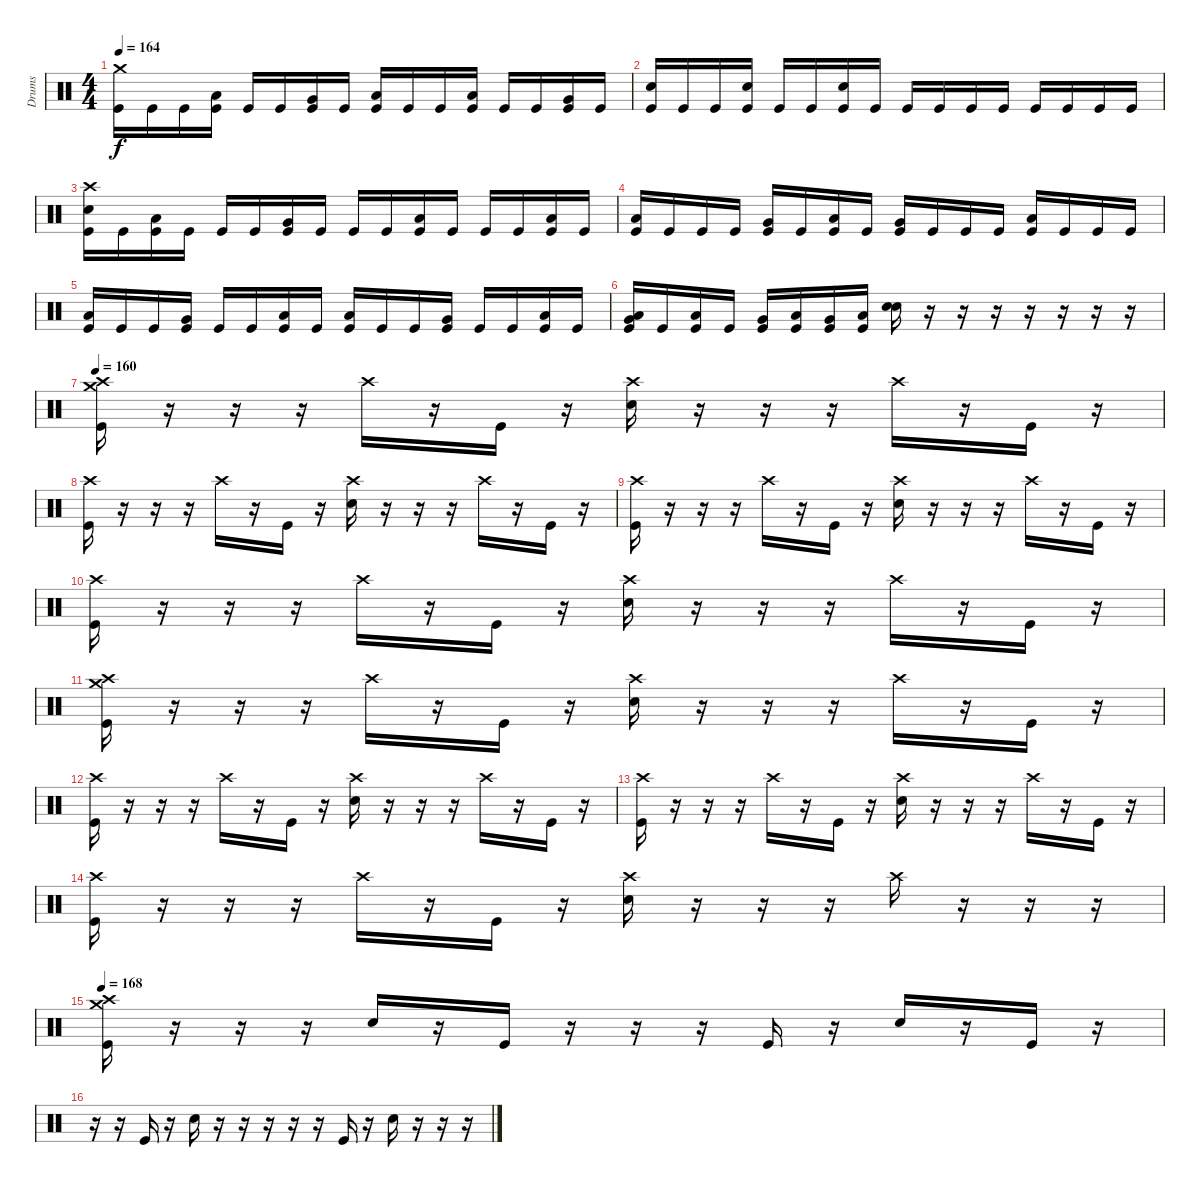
\track ("Drums" "Drums") {instrument percussion}
\staff {score}
\articulation defaults
\ts (4 4)
\tempo 164
\clef neutral
\ks c
("Kick (hit)" "Crash medium (hit)").16{dy f} "Kick (hit)".16 "Kick (hit)".16 ("Kick (hit)" "Low Tom (hit)").16 "Kick (hit)".16 "Kick (hit)".16 ("Kick (hit)" "Very Low Tom (hit)").16 "Kick (hit)".16 ("Kick (hit)" "Low Tom (hit)").16 "Kick (hit)".16 "Kick (hit)".16 ("Kick (hit)" "Low Tom (hit)").16 "Kick (hit)".16 "Kick (hit)".16 ("Kick (hit)" "Very Low Tom (hit)").16 "Kick (hit)".16 |
("Kick (hit)" "Electric Snare (hit)").16 "Kick (hit)".16 "Kick (hit)".16 ("Kick (hit)" "Electric Snare (hit)").16 "Kick (hit)".16 "Kick (hit)".16 ("Kick (hit)" "Electric Snare (hit)").16 "Kick (hit)".16 "Kick (hit)".16 "Kick (hit)".16 "Kick (hit)".16 "Kick (hit)".16 "Kick (hit)".16 "Kick (hit)".16 "Kick (hit)".16 "Kick (hit)".16 |
("Kick (hit)" "Crash high (hit)" "Electric Snare (hit)").16 "Kick (hit)".16 ("Kick (hit)" "Low Tom (hit)").16 "Kick (hit)".16 "Kick (hit)".16 "Kick (hit)".16 ("Kick (hit)" "Very Low Tom (hit)").16 "Kick (hit)".16 "Kick (hit)".16 "Kick (hit)".16 ("Kick (hit)" "Low Floor Tom (hit)").16 "Kick (hit)".16 "Kick (hit)".16 "Kick (hit)".16 ("Kick (hit)" "Low Floor Tom (hit)").16 "Kick (hit)".16 |
("Kick (hit)" "Low Tom (hit)").16 "Kick (hit)".16 "Kick (hit)".16 "Kick (hit)".16 ("Kick (hit)" "Very Low Tom (hit)").16 "Kick (hit)".16 ("Kick (hit)" "Low Floor Tom (hit)").16 "Kick (hit)".16 ("Kick (hit)" "Very Low Tom (hit)").16 "Kick (hit)".16 "Kick (hit)".16 "Kick (hit)".16 ("Kick (hit)" "Low Tom (hit)").16 "Kick (hit)".16 "Kick (hit)".16 "Kick (hit)".16 |
("Kick (hit)" "Low Tom (hit)").16 "Kick (hit)".16 "Kick (hit)".16 ("Kick (hit)" "Very Low Tom (hit)").16 "Kick (hit)".16 "Kick (hit)".16 ("Kick (hit)" "Low Floor Tom (hit)").16 "Kick (hit)".16 ("Kick (hit)" "Low Tom (hit)").16 "Kick (hit)".16 "Kick (hit)".16 ("Kick (hit)" "Very Low Tom (hit)").16 "Kick (hit)".16 "Kick (hit)".16 ("Kick (hit)" "Low Floor Tom (hit)").16 "Kick (hit)".16 |
("Kick (hit)" "Low Tom (hit)" "Very Low Tom (hit)").16 "Kick (hit)".16 ("Kick (hit)" "Low Floor Tom (hit)").16 "Kick (hit)".16 ("Kick (hit)" "Very Low Tom (hit)").16 ("Kick (hit)" "Low Floor Tom (hit)").16 ("Kick (hit)" "Very Low Tom (hit)").16 ("Kick (hit)" "Low Tom (hit)").16 ("Electric Snare (hit)" "Electric Snare (hit)").16 r.16 r.16 r.16 r.16 r.16 r.16 r.16 |
\tempo 160
("Crash medium (hit)" "Kick (hit)" "Crash high (hit)").16 r.16 r.16 r.16 "Crash high (hit)".16 r.16 "Kick (hit)".16 r.16 ("Electric Snare (hit)" "Crash high (hit)").16 r.16 r.16 r.16 "Crash high (hit)".16 r.16 "Kick (hit)".16 r.16 |
("Kick (hit)" "Crash high (hit)").16 r.16 r.16 r.16 "Crash high (hit)".16 r.16 "Kick (hit)".16 r.16 ("Electric Snare (hit)" "Crash high (hit)").16 r.16 r.16 r.16 "Crash high (hit)".16 r.16 "Kick (hit)".16 r.16 |
("Kick (hit)" "Crash high (hit)").16 r.16 r.16 r.16 "Crash high (hit)".16 r.16 "Kick (hit)".16 r.16 ("Electric Snare (hit)" "Crash high (hit)").16 r.16 r.16 r.16 "Crash high (hit)".16 r.16 "Kick (hit)".16 r.16 |
("Kick (hit)" "Crash high (hit)").16 r.16 r.16 r.16 "Crash high (hit)".16 r.16 "Kick (hit)".16 r.16 ("Electric Snare (hit)" "Crash high (hit)").16 r.16 r.16 r.16 "Crash high (hit)".16 r.16 "Kick (hit)".16 r.16 |
("Crash medium (hit)" "Kick (hit)" "Crash high (hit)").16 r.16 r.16 r.16 "Crash high (hit)".16 r.16 "Kick (hit)".16 r.16 ("Electric Snare (hit)" "Crash high (hit)").16 r.16 r.16 r.16 "Crash high (hit)".16 r.16 "Kick (hit)".16 r.16 |
("Kick (hit)" "Crash high (hit)").16 r.16 r.16 r.16 "Crash high (hit)".16 r.16 "Kick (hit)".16 r.16 ("Electric Snare (hit)" "Crash high (hit)").16 r.16 r.16 r.16 "Crash high (hit)".16 r.16 "Kick (hit)".16 r.16 |
("Kick (hit)" "Crash high (hit)").16 r.16 r.16 r.16 "Crash high (hit)".16 r.16 "Kick (hit)".16 r.16 ("Electric Snare (hit)" "Crash high (hit)").16 r.16 r.16 r.16 "Crash high (hit)".16 r.16 "Kick (hit)".16 r.16 |
("Kick (hit)" "Crash high (hit)").16 r.16 r.16 r.16 "Crash high (hit)".16 r.16 "Kick (hit)".16 r.16 ("Electric Snare (hit)" "Crash high (hit)").16 r.16 r.16 r.16 "Crash high (hit)".16 r.16 r.16 r.16 |
\tempo 168
("Kick (hit)" "Crash high (hit)" "Crash medium (hit)").16 r.16 r.16 r.16 "Electric Snare (hit)".16 r.16 "Kick (hit)".16 r.16 r.16 r.16 "Kick (hit)".16 r.16 "Electric Snare (hit)".16 r.16 "Kick (hit)".16 r.16 |
r.16 r.16 "Kick (hit)".16 r.16 "Electric Snare (hit)".16 r.16 r.16 r.16 r.16 r.16 "Kick (hit)".16 r.16 "Electric Snare (hit)".16 r.16 r.16 r.16
